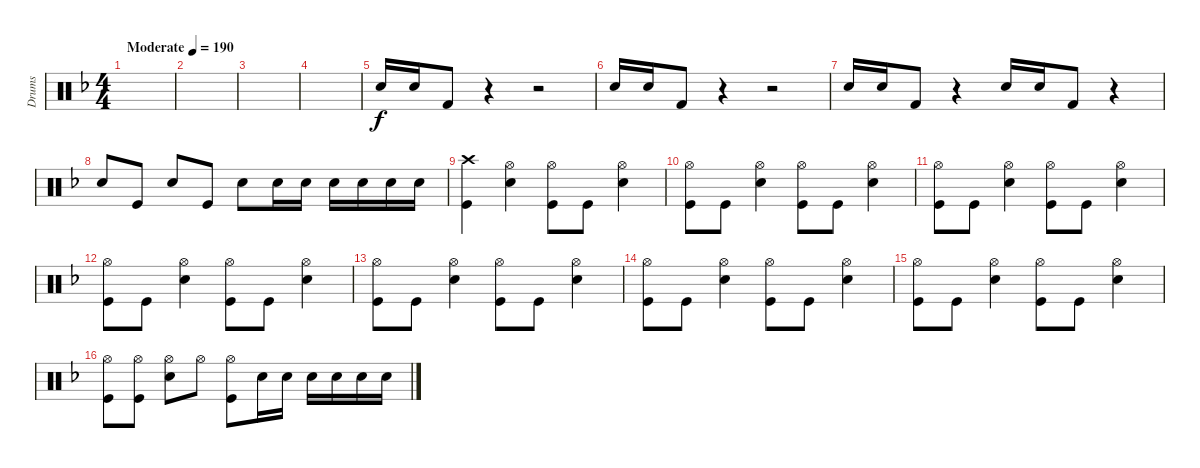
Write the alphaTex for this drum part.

\track ("Drums" "Drums") {instrument percussion}
\staff {score}
\articulation defaults
\ts (4 4)
\tempo (190 "Moderate")
\clef neutral
\ks f
|
|
|
|
"Electric Snare (hit)".16 "Electric Snare (hit)".16 "Kick (hit) 2".8 r.4 r.2 |
"Electric Snare (hit)".16 "Electric Snare (hit)".16 "Kick (hit) 2".8 r.4 r.2 |
"Electric Snare (hit)".16 "Electric Snare (hit)".16 "Kick (hit) 2".8 r.4 "Electric Snare (hit)".16 "Electric Snare (hit)".16 "Kick (hit) 2".8 r.4 |
"Snare (hit) 2".8 "Kick (hit)".8 "Snare (hit) 2".8 "Kick (hit)".8 "Snare (hit) 2".8 "Snare (hit) 2".16 "Snare (hit) 2".16 "Snare (hit) 2".16 "Snare (hit) 2".16 "Snare (hit) 2".16 "Snare (hit) 2".16 |
("Crash high (hit)" "Kick (hit)").4 ("Snare (hit) 2" "Hi-Hat (open)").4 ("Kick (hit)" "Hi-Hat (open)").8 "Kick (hit)".8 ("Hi-Hat (open)" "Snare (hit) 2").4 |
("Kick (hit)" "Hi-Hat (open)").8 "Kick (hit)".8 ("Snare (hit) 2" "Hi-Hat (open)").4 ("Kick (hit)" "Hi-Hat (open)").8 "Kick (hit)".8 ("Hi-Hat (open)" "Snare (hit) 2").4 |
("Kick (hit)" "Hi-Hat (open)").8 "Kick (hit)".8 ("Snare (hit) 2" "Hi-Hat (open)").4 ("Kick (hit)" "Hi-Hat (open)").8 "Kick (hit)".8 ("Hi-Hat (open)" "Snare (hit) 2").4 |
("Kick (hit)" "Hi-Hat (open)").8 "Kick (hit)".8 ("Snare (hit) 2" "Hi-Hat (open)").4 ("Kick (hit)" "Hi-Hat (open)").8 "Kick (hit)".8 ("Hi-Hat (open)" "Snare (hit) 2").4 |
("Kick (hit)" "Hi-Hat (open)").8 "Kick (hit)".8 ("Snare (hit) 2" "Hi-Hat (open)").4 ("Kick (hit)" "Hi-Hat (open)").8 "Kick (hit)".8 ("Hi-Hat (open)" "Snare (hit) 2").4 |
("Kick (hit)" "Hi-Hat (open)").8 "Kick (hit)".8 ("Snare (hit) 2" "Hi-Hat (open)").4 ("Kick (hit)" "Hi-Hat (open)").8 "Kick (hit)".8 ("Hi-Hat (open)" "Snare (hit) 2").4 |
("Kick (hit)" "Hi-Hat (open)").8 "Kick (hit)".8 ("Snare (hit) 2" "Hi-Hat (open)").4 ("Kick (hit)" "Hi-Hat (open)").8 "Kick (hit)".8 ("Hi-Hat (open)" "Snare (hit) 2").4 |
("Kick (hit)" "Hi-Hat (open)").8 ("Kick (hit)" "Hi-Hat (open)").8 ("Snare (hit) 2" "Hi-Hat (open)").8 "Hi-Hat (open)".8 ("Hi-Hat (open)" "Kick (hit)").8 "Snare (hit) 2".16 "Snare (hit) 2".16 "Snare (hit) 2".16 "Snare (hit) 2".16 "Snare (hit) 2".16 "Snare (hit) 2".16
